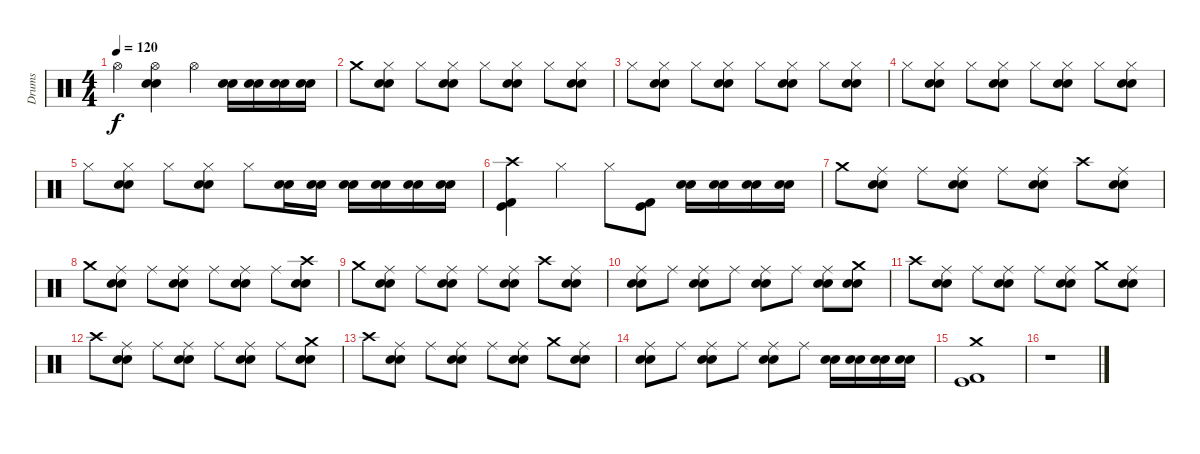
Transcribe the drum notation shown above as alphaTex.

\track ("Drums" "Drums") {instrument percussion}
\staff {score}
\articulation defaults
\ts (4 4)
\tempo 120
\clef neutral
\ks c "Hi-Hat (open)".4{dy f}
("Hi-Hat (open)" "Electric Snare (hit)" "Snare (hit) 2").4 "Hi-Hat (open)".4 ("Electric Snare (hit)" "Snare (hit) 2").16 ("Electric Snare (hit)" "Snare (hit) 2").16 ("Electric Snare (hit)" "Snare (hit) 2").16 ("Electric Snare (hit)" "Snare (hit) 2").16 |
"Crash medium (hit)".8 ("Hi-Hat (closed)" "Electric Snare (hit)" "Snare (hit) 2").8 "Hi-Hat (closed)".8 ("Hi-Hat (closed)" "Electric Snare (hit)" "Snare (hit) 2").8 "Hi-Hat (closed)".8 ("Hi-Hat (closed)" "Electric Snare (hit)" "Snare (hit) 2").8 "Hi-Hat (closed)".8 ("Hi-Hat (closed)" "Electric Snare (hit)" "Snare (hit) 2").8 |
"Hi-Hat (closed)".8 ("Hi-Hat (closed)" "Electric Snare (hit)" "Snare (hit) 2").8 "Hi-Hat (closed)".8 ("Hi-Hat (closed)" "Electric Snare (hit)" "Snare (hit) 2").8 "Hi-Hat (closed)".8 ("Hi-Hat (closed)" "Electric Snare (hit)" "Snare (hit) 2").8 "Hi-Hat (closed)".8 ("Hi-Hat (closed)" "Electric Snare (hit)" "Snare (hit) 2").8 |
"Hi-Hat (closed)".8 ("Hi-Hat (closed)" "Electric Snare (hit)" "Snare (hit) 2").8 "Hi-Hat (closed)".8 ("Hi-Hat (closed)" "Electric Snare (hit)" "Snare (hit) 2").8 "Hi-Hat (closed)".8 ("Hi-Hat (closed)" "Electric Snare (hit)" "Snare (hit) 2").8 "Hi-Hat (closed)".8 ("Hi-Hat (closed)" "Electric Snare (hit)" "Snare (hit) 2").8 |
"Hi-Hat (closed)".8 ("Hi-Hat (closed)" "Electric Snare (hit)" "Snare (hit) 2").8 "Hi-Hat (closed)".8 ("Hi-Hat (closed)" "Electric Snare (hit)" "Snare (hit) 2").8 "Hi-Hat (closed)".8 ("Electric Snare (hit)" "Snare (hit) 2").16 ("Electric Snare (hit)" "Snare (hit) 2").16 ("Electric Snare (hit)" "Snare (hit) 2").16 ("Electric Snare (hit)" "Snare (hit) 2").16 ("Electric Snare (hit)" "Snare (hit) 2").16 ("Electric Snare (hit)" "Snare (hit) 2").16 |
("Kick (hit) 2" "Kick (hit)" "Crash high (hit)").4 "Hi-Hat (closed)".4 "Hi-Hat (closed)".8 ("Kick (hit) 2" "Kick (hit)").8 ("Electric Snare (hit)" "Snare (hit) 2").16 ("Electric Snare (hit)" "Snare (hit) 2").16 ("Electric Snare (hit)" "Snare (hit) 2").16 ("Electric Snare (hit)" "Snare (hit) 2").16 |
"Crash medium (hit)".8 ("Ride (middle)" "Electric Snare (hit)" "Snare (hit) 2").8 "Ride (middle)".8 ("Ride (middle)" "Electric Snare (hit)" "Snare (hit) 2").8 "Ride (middle)".8 ("Ride (middle)" "Electric Snare (hit)" "Snare (hit) 2").8 "Crash high (hit)".8 ("Ride (middle)" "Electric Snare (hit)" "Snare (hit) 2").8 |
"Crash medium (hit)".8 ("Ride (middle)" "Electric Snare (hit)" "Snare (hit) 2").8 "Ride (middle)".8 ("Ride (middle)" "Electric Snare (hit)" "Snare (hit) 2").8 "Ride (middle)".8 ("Ride (middle)" "Electric Snare (hit)" "Snare (hit) 2").8 "Ride (middle)".8 ("Crash high (hit)" "Electric Snare (hit)" "Snare (hit) 2").8 |
"Crash medium (hit)".8 ("Ride (middle)" "Electric Snare (hit)" "Snare (hit) 2").8 "Ride (middle)".8 ("Ride (middle)" "Electric Snare (hit)" "Snare (hit) 2").8 "Ride (middle)".8 ("Ride (middle)" "Electric Snare (hit)" "Snare (hit) 2").8 "Crash high (hit)".8 ("Ride (middle)" "Electric Snare (hit)" "Snare (hit) 2").8 |
("Ride (middle)" "Electric Snare (hit)" "Snare (hit) 2").8 "Ride (middle)".8 ("Ride (middle)" "Electric Snare (hit)" "Snare (hit) 2").8 "Ride (middle)".8 ("Ride (middle)" "Electric Snare (hit)" "Snare (hit) 2").8 "Ride (middle)".8 ("Ride (middle)" "Electric Snare (hit)" "Snare (hit) 2").8 ("Crash medium (hit)" "Electric Snare (hit)" "Snare (hit) 2").8 |
"Crash high (hit)".8 ("Ride (middle)" "Electric Snare (hit)" "Snare (hit) 2").8 "Ride (middle)".8 ("Ride (middle)" "Electric Snare (hit)" "Snare (hit) 2").8 "Ride (middle)".8 ("Ride (middle)" "Electric Snare (hit)" "Snare (hit) 2").8 "Crash medium (hit)".8 ("Ride (middle)" "Electric Snare (hit)" "Snare (hit) 2").8 |
"Crash high (hit)".8 ("Ride (middle)" "Electric Snare (hit)" "Snare (hit) 2").8 "Ride (middle)".8 ("Ride (middle)" "Electric Snare (hit)" "Snare (hit) 2").8 "Ride (middle)".8 ("Ride (middle)" "Electric Snare (hit)" "Snare (hit) 2").8 "Ride (middle)".8 ("Crash medium (hit)" "Electric Snare (hit)" "Snare (hit) 2").8 |
"Crash high (hit)".8 ("Ride (middle)" "Electric Snare (hit)" "Snare (hit) 2").8 "Ride (middle)".8 ("Ride (middle)" "Electric Snare (hit)" "Snare (hit) 2").8 "Ride (middle)".8 ("Ride (middle)" "Electric Snare (hit)" "Snare (hit) 2").8 "Crash medium (hit)".8 ("Ride (middle)" "Electric Snare (hit)" "Snare (hit) 2").8 |
("Ride (middle)" "Electric Snare (hit)" "Snare (hit) 2").8 "Ride (middle)".8 ("Ride (middle)" "Electric Snare (hit)" "Snare (hit) 2").8 "Ride (middle)".8 ("Ride (middle)" "Electric Snare (hit)" "Snare (hit) 2").8 "Ride (middle)".8 ("Electric Snare (hit)" "Snare (hit) 2").16 ("Electric Snare (hit)" "Snare (hit) 2").16 ("Electric Snare (hit)" "Snare (hit) 2").16 ("Electric Snare (hit)" "Snare (hit) 2").16 |
("Kick (hit) 2" "Kick (hit)" "Crash medium (hit)").1 |
r.1
